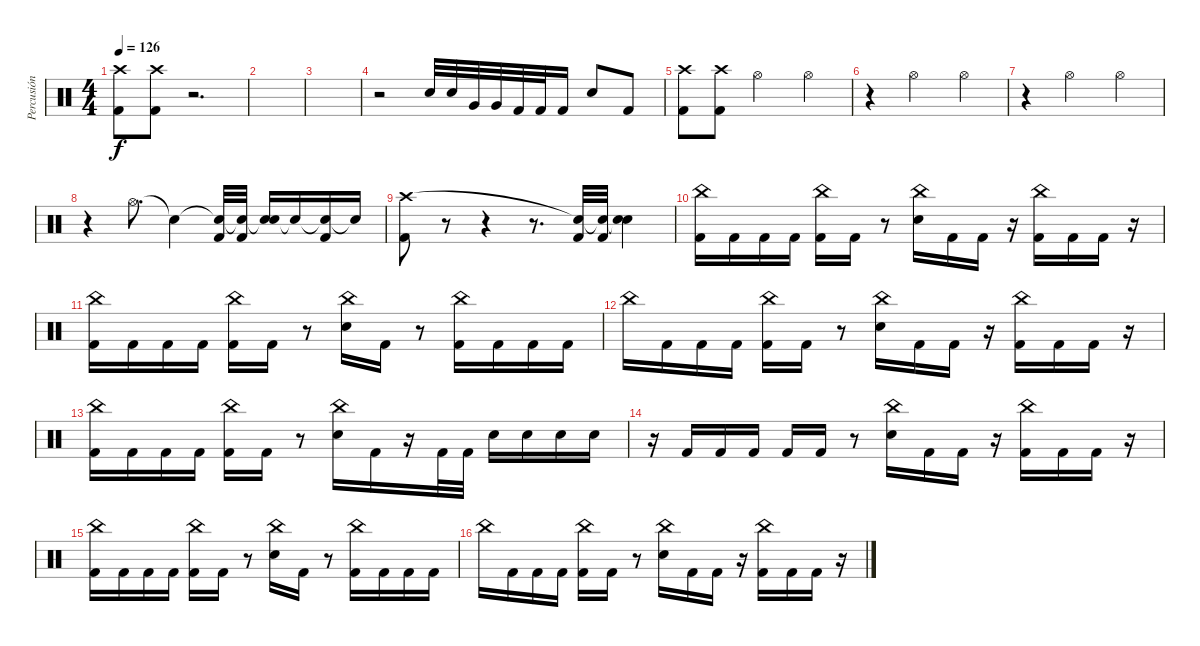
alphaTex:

\track ("Percusión" "Percusión") {instrument percussion}
\staff {score}
\articulation defaults
\ts (4 4)
\tempo 126
\clef neutral
\ks c
("Crash high (hit)" "Kick (hit) 2").8{dy f} ("Crash high (hit)" "Kick (hit) 2").8 r.2{d} |
|
|
r.2 "Electric Snare (hit)".32 "Electric Snare (hit)".32 "Very Low Tom (hit)".32 "Very Low Tom (hit)".32 "Kick (hit) 2".32 "Kick (hit) 2".32 "Kick (hit) 2".16 "Electric Snare (hit)".8 "Kick (hit) 2".8 |
("Crash high (hit)" "Kick (hit) 2").8 ("Crash high (hit)" "Kick (hit) 2").8 "Hi-Hat (open)".2 "Hi-Hat (open)".4 |
r.4 "Hi-Hat (open)".2 "Hi-Hat (open)".4 |
r.4 "Hi-Hat (open)".2 "Hi-Hat (open)".4 |
r.4 "Hi-Hat (open)".8{d} "Snare (hit)"{t}.4 ("Snare (hit)"{t} "Kick (hit) 2").32 ("Snare (hit)"{t} "Kick (hit) 2").32 ("Snare (hit)"{t} "Electric Snare (hit)").16 "Snare (hit)"{t}.16 ("Snare (hit)"{t} "Kick (hit) 2").16 "Snare (hit)"{t}.16 |
("Crash high (hit)" "Kick (hit) 2").8 r.8 r.4 r.8{d} ("Snare (hit)"{t} "Kick (hit) 2").32 ("Snare (hit)"{t} "Kick (hit) 2").32 ("Snare (hit)"{t} "Electric Snare (hit)").4 |
("China (hit)" "Kick (hit) 2").16 "Kick (hit) 2".16 "Kick (hit) 2".16 "Kick (hit) 2".16 ("China (hit)" "Kick (hit) 2").16 "Kick (hit) 2".16 r.8 ("China (hit)" "Electric Snare (hit)").16 "Kick (hit) 2".16 "Kick (hit) 2".16 r.16 ("China (hit)" "Kick (hit) 2").16 "Kick (hit) 2".16 "Kick (hit) 2".16 r.16 |
("China (hit)" "Kick (hit) 2").16 "Kick (hit) 2".16 "Kick (hit) 2".16 "Kick (hit) 2".16 ("China (hit)" "Kick (hit) 2").16 "Kick (hit) 2".16 r.8 ("China (hit)" "Electric Snare (hit)").16 "Kick (hit) 2".16 r.8 ("China (hit)" "Kick (hit) 2").16 "Kick (hit) 2".16 "Kick (hit) 2".16 "Kick (hit) 2".16 |
"China (hit)".16 "Kick (hit) 2".16 "Kick (hit) 2".16 "Kick (hit) 2".16 ("China (hit)" "Kick (hit) 2").16 "Kick (hit) 2".16 r.8 ("China (hit)" "Electric Snare (hit)").16 "Kick (hit) 2".16 "Kick (hit) 2".16 r.16 ("China (hit)" "Kick (hit) 2").16 "Kick (hit) 2".16 "Kick (hit) 2".16 r.16 |
("China (hit)" "Kick (hit) 2").16 "Kick (hit) 2".16 "Kick (hit) 2".16 "Kick (hit) 2".16 ("China (hit)" "Kick (hit) 2").16 "Kick (hit) 2".16 r.8 ("China (hit)" "Electric Snare (hit)").16 "Kick (hit) 2".16 r.16 "Kick (hit) 2".32 "Kick (hit) 2".32 "Electric Snare (hit)".16 "Electric Snare (hit)".16 "Electric Snare (hit)".16 "Electric Snare (hit)".16 |
r.16 "Kick (hit) 2".16 "Kick (hit) 2".16 "Kick (hit) 2".16 "Kick (hit) 2".16 "Kick (hit) 2".16 r.8 ("China (hit)" "Electric Snare (hit)").16 "Kick (hit) 2".16 "Kick (hit) 2".16 r.16 ("China (hit)" "Kick (hit) 2").16 "Kick (hit) 2".16 "Kick (hit) 2".16 r.16 |
("China (hit)" "Kick (hit) 2").16 "Kick (hit) 2".16 "Kick (hit) 2".16 "Kick (hit) 2".16 ("China (hit)" "Kick (hit) 2").16 "Kick (hit) 2".16 r.8 ("China (hit)" "Electric Snare (hit)").16 "Kick (hit) 2".16 r.8 ("China (hit)" "Kick (hit) 2").16 "Kick (hit) 2".16 "Kick (hit) 2".16 "Kick (hit) 2".16 |
"China (hit)".16 "Kick (hit) 2".16 "Kick (hit) 2".16 "Kick (hit) 2".16 ("China (hit)" "Kick (hit) 2").16 "Kick (hit) 2".16 r.8 ("China (hit)" "Electric Snare (hit)").16 "Kick (hit) 2".16 "Kick (hit) 2".16 r.16 ("China (hit)" "Kick (hit) 2").16 "Kick (hit) 2".16 "Kick (hit) 2".16 r.16
